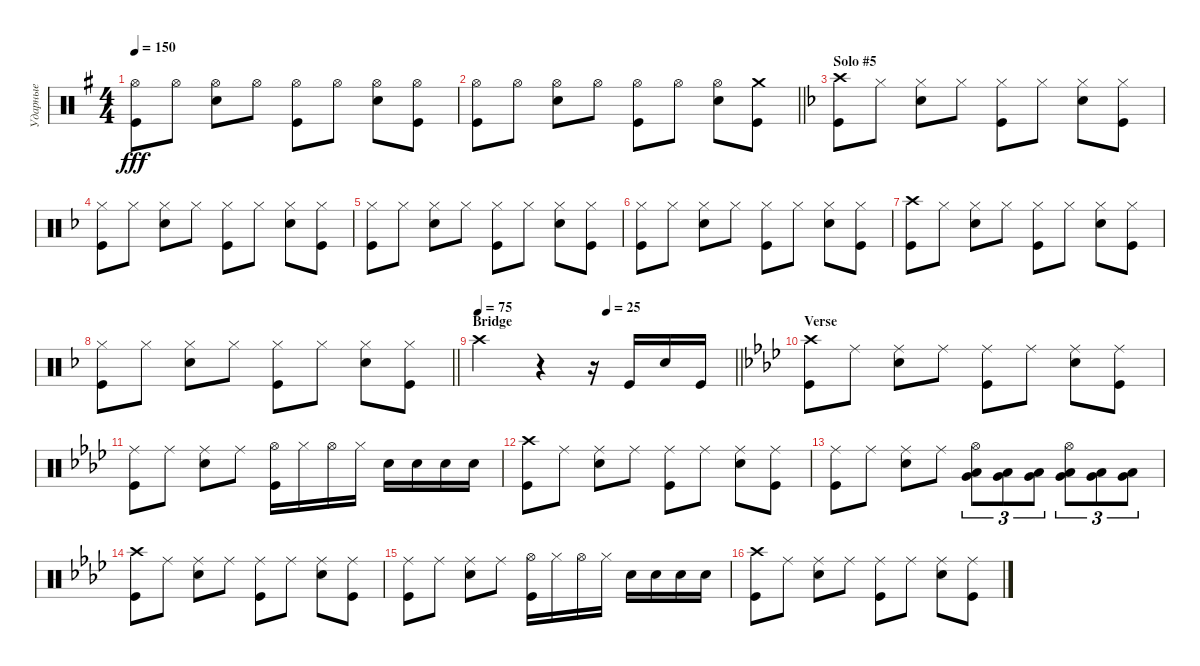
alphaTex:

\track ("Ударные" "Ударные") {instrument percussion}
\staff {score}
\articulation defaults
\ts (4 4)
\tempo 150
\clef neutral
\ks eminor
("Kick (hit)" "Hi-Hat (open)").8{dy fff} "Hi-Hat (open)".8 ("Hi-Hat (open)" "Snare (hit) 2").8 "Hi-Hat (open)".8 ("Hi-Hat (open)" "Kick (hit)").8 "Hi-Hat (open)".8 ("Snare (hit) 2" "Hi-Hat (open)").8 ("Hi-Hat (open)" "Kick (hit)").8 |
\barLineRight lightlight
("Hi-Hat (open)" "Kick (hit)").8 "Hi-Hat (open)".8 ("Hi-Hat (open)" "Snare (hit) 2").8 "Hi-Hat (open)".8 ("Hi-Hat (open)" "Kick (hit)").8 "Hi-Hat (open)".8 ("Hi-Hat (open)" "Snare (hit) 2").8 ("Kick (hit)" "Crash medium (hit)").8 |
\section ("" "Solo #5")
\ks dminor
("Crash high (hit)" "Kick (hit)").8 "Hi-Hat (closed)".8 ("Hi-Hat (closed)" "Snare (hit) 2").8 "Hi-Hat (closed)".8 ("Hi-Hat (closed)" "Kick (hit)").8 "Hi-Hat (closed)".8 ("Hi-Hat (closed)" "Snare (hit) 2").8 ("Hi-Hat (closed)" "Kick (hit)").8 |
("Hi-Hat (closed)" "Kick (hit)").8 "Hi-Hat (closed)".8 ("Hi-Hat (closed)" "Snare (hit) 2").8 "Hi-Hat (closed)".8 ("Hi-Hat (closed)" "Kick (hit)").8 "Hi-Hat (closed)".8 ("Hi-Hat (closed)" "Snare (hit) 2").8 ("Hi-Hat (closed)" "Kick (hit)").8 |
("Hi-Hat (closed)" "Kick (hit)").8 "Hi-Hat (closed)".8 ("Hi-Hat (closed)" "Snare (hit) 2").8 "Hi-Hat (closed)".8 ("Hi-Hat (closed)" "Kick (hit)").8 "Hi-Hat (closed)".8 ("Hi-Hat (closed)" "Snare (hit) 2").8 ("Hi-Hat (closed)" "Kick (hit)").8 |
("Hi-Hat (closed)" "Kick (hit)").8 "Hi-Hat (closed)".8 ("Hi-Hat (closed)" "Snare (hit) 2").8 "Hi-Hat (closed)".8 ("Hi-Hat (closed)" "Kick (hit)").8 "Hi-Hat (closed)".8 ("Hi-Hat (closed)" "Snare (hit) 2").8 ("Hi-Hat (closed)" "Kick (hit)").8 |
("Crash high (hit)" "Kick (hit)").8 "Hi-Hat (closed)".8 ("Hi-Hat (closed)" "Snare (hit) 2").8 "Hi-Hat (closed)".8 ("Hi-Hat (closed)" "Kick (hit)").8 "Hi-Hat (closed)".8 ("Hi-Hat (closed)" "Snare (hit) 2").8 ("Hi-Hat (closed)" "Kick (hit)").8 |
\barLineRight lightlight
("Hi-Hat (closed)" "Kick (hit)").8 "Hi-Hat (closed)".8 ("Hi-Hat (closed)" "Snare (hit) 2").8 "Hi-Hat (closed)".8 ("Hi-Hat (closed)" "Kick (hit)").8 "Hi-Hat (closed)".8 ("Hi-Hat (closed)" "Snare (hit) 2").8 ("Hi-Hat (closed)" "Kick (hit)").8 |
\section ("" "Bridge")
\tempo 75
\tempo (25 0.5)
\barLineRight lightlight "Crash high (hit)".2
r.4 r.16 "Kick (hit)".16 "Snare (hit) 2".16 "Kick (hit)".16 |
\section ("" "Verse")
\ks fminor
("Crash high (hit)" "Kick (hit)").8 "Ride (middle)".8 ("Ride (middle)" "Snare (hit) 2").8 "Ride (middle)".8 ("Ride (middle)" "Kick (hit)").8 "Ride (middle)".8 ("Ride (middle)" "Snare (hit) 2").8 ("Ride (middle)" "Kick (hit)").8 |
("Ride (middle)" "Kick (hit)").8 "Ride (middle)".8 ("Ride (middle)" "Snare (hit) 2").8 "Ride (middle)".8 ("Hi-Hat (open)" "Kick (hit)").16 "Hi-Hat (closed)".16 "Hi-Hat (open)".16 "Hi-Hat (closed)".16 "Snare (hit) 2".16 "Snare (hit) 2".16 "Snare (hit) 2".16 "Snare (hit) 2".16 |
("Crash high (hit)" "Kick (hit)").8 "Ride (middle)".8 ("Ride (middle)" "Snare (hit) 2").8 "Ride (middle)".8 ("Ride (middle)" "Kick (hit)").8 "Ride (middle)".8 ("Ride (middle)" "Snare (hit) 2").8 ("Ride (middle)" "Kick (hit)").8 |
("Ride (middle)" "Kick (hit)").8 "Ride (middle)".8 ("Ride (middle)" "Snare (hit) 2").8 "Ride (middle)".8 ("Hi-Hat (open)" "Low Tom (hit)" "Very Low Tom (hit)").8{tu (3 2)} ("Low Tom (hit)" "Very Low Tom (hit)").8{tu (3 2)} ("Low Tom (hit)" "Very Low Tom (hit)").8{tu (3 2)} ("Hi-Hat (open)" "Very Low Tom (hit)" "Low Floor Tom (hit)").8{tu (3 2)} ("Very Low Tom (hit)" "Low Floor Tom (hit)").8{tu (3 2)} ("Very Low Tom (hit)" "Low Floor Tom (hit)").8{tu (3 2)} |
("Crash high (hit)" "Kick (hit)").8 "Ride (middle)".8 ("Ride (middle)" "Snare (hit) 2").8 "Ride (middle)".8 ("Ride (middle)" "Kick (hit)").8 "Ride (middle)".8 ("Ride (middle)" "Snare (hit) 2").8 ("Ride (middle)" "Kick (hit)").8 |
("Ride (middle)" "Kick (hit)").8 "Ride (middle)".8 ("Ride (middle)" "Snare (hit) 2").8 "Ride (middle)".8 ("Hi-Hat (open)" "Kick (hit)").16 "Hi-Hat (closed)".16 "Hi-Hat (open)".16 "Hi-Hat (closed)".16 "Snare (hit) 2".16 "Snare (hit) 2".16 "Snare (hit) 2".16 "Snare (hit) 2".16 |
("Crash high (hit)" "Kick (hit)").8 "Ride (middle)".8 ("Ride (middle)" "Snare (hit) 2").8 "Ride (middle)".8 ("Ride (middle)" "Kick (hit)").8 "Ride (middle)".8 ("Ride (middle)" "Snare (hit) 2").8 ("Ride (middle)" "Kick (hit)").8
